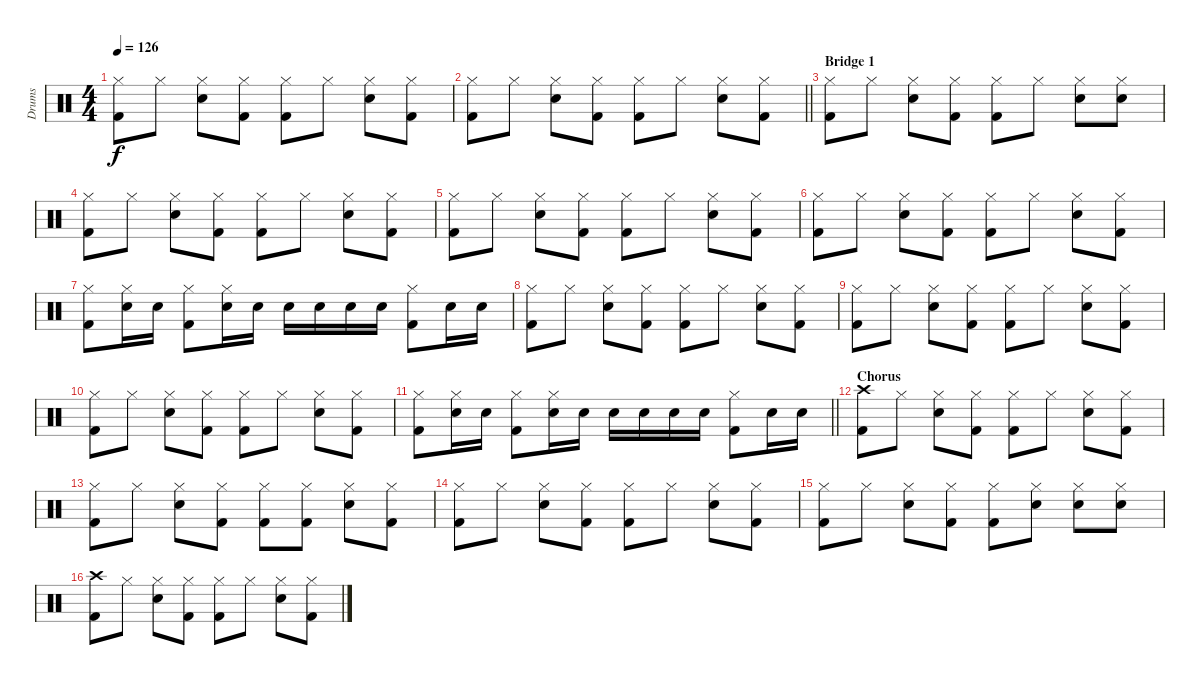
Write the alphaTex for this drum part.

\track ("Drums" "Drums") {instrument percussion}
\staff {score}
\articulation defaults
\ts (4 4)
\tempo 126
\clef neutral
\ks c
("Kick (hit) 2" "Hi-Hat (closed)").8{dy f} "Hi-Hat (closed)".8 ("Snare (hit) 2" "Hi-Hat (closed)").8 ("Kick (hit) 2" "Hi-Hat (closed)").8 ("Kick (hit) 2" "Hi-Hat (closed)").8 "Hi-Hat (closed)".8 ("Snare (hit) 2" "Hi-Hat (closed)").8 ("Kick (hit) 2" "Hi-Hat (closed)").8 |
\barLineRight lightlight
("Kick (hit) 2" "Hi-Hat (closed)").8 "Hi-Hat (closed)".8 ("Snare (hit) 2" "Hi-Hat (closed)").8 ("Kick (hit) 2" "Hi-Hat (closed)").8 ("Kick (hit) 2" "Hi-Hat (closed)").8 "Hi-Hat (closed)".8 ("Snare (hit) 2" "Hi-Hat (closed)").8 ("Kick (hit) 2" "Hi-Hat (closed)").8 |
\section ("" "Bridge 1")
("Kick (hit) 2" "Hi-Hat (closed)").8 "Hi-Hat (closed)".8 ("Snare (hit) 2" "Hi-Hat (closed)").8 ("Kick (hit) 2" "Hi-Hat (closed)").8 ("Kick (hit) 2" "Hi-Hat (closed)").8 "Hi-Hat (closed)".8 ("Snare (hit) 2" "Hi-Hat (closed)").8 ("Snare (hit) 2" "Hi-Hat (closed)").8 |
("Kick (hit) 2" "Hi-Hat (closed)").8 "Hi-Hat (closed)".8 ("Snare (hit) 2" "Hi-Hat (closed)").8 ("Kick (hit) 2" "Hi-Hat (closed)").8 ("Kick (hit) 2" "Hi-Hat (closed)").8 "Hi-Hat (closed)".8 ("Snare (hit) 2" "Hi-Hat (closed)").8 ("Kick (hit) 2" "Hi-Hat (closed)").8 |
("Kick (hit) 2" "Hi-Hat (closed)").8 "Hi-Hat (closed)".8 ("Snare (hit) 2" "Hi-Hat (closed)").8 ("Kick (hit) 2" "Hi-Hat (closed)").8 ("Kick (hit) 2" "Hi-Hat (closed)").8 "Hi-Hat (closed)".8 ("Snare (hit) 2" "Hi-Hat (closed)").8 ("Kick (hit) 2" "Hi-Hat (closed)").8 |
("Kick (hit) 2" "Hi-Hat (closed)").8 "Hi-Hat (closed)".8 ("Snare (hit) 2" "Hi-Hat (closed)").8 ("Kick (hit) 2" "Hi-Hat (closed)").8 ("Kick (hit) 2" "Hi-Hat (closed)").8 "Hi-Hat (closed)".8 ("Snare (hit) 2" "Hi-Hat (closed)").8 ("Kick (hit) 2" "Hi-Hat (closed)").8 |
("Kick (hit) 2" "Hi-Hat (closed)").8 ("Snare (hit) 2" "Hi-Hat (closed)").16 "Snare (hit) 2".16 ("Kick (hit) 2" "Hi-Hat (closed)").8 ("Snare (hit) 2" "Hi-Hat (closed)").16 "Snare (hit) 2".16 "Snare (hit) 2".16 "Snare (hit) 2".16 "Snare (hit) 2".16 "Snare (hit) 2".16 ("Kick (hit) 2" "Hi-Hat (closed)").8 "Snare (hit) 2".16 "Snare (hit) 2".16 |
("Kick (hit) 2" "Hi-Hat (closed)").8 "Hi-Hat (closed)".8 ("Snare (hit) 2" "Hi-Hat (closed)").8 ("Kick (hit) 2" "Hi-Hat (closed)").8 ("Kick (hit) 2" "Hi-Hat (closed)").8 "Hi-Hat (closed)".8 ("Snare (hit) 2" "Hi-Hat (closed)").8 ("Kick (hit) 2" "Hi-Hat (closed)").8 |
("Kick (hit) 2" "Hi-Hat (closed)").8 "Hi-Hat (closed)".8 ("Snare (hit) 2" "Hi-Hat (closed)").8 ("Kick (hit) 2" "Hi-Hat (closed)").8 ("Kick (hit) 2" "Hi-Hat (closed)").8 "Hi-Hat (closed)".8 ("Snare (hit) 2" "Hi-Hat (closed)").8 ("Kick (hit) 2" "Hi-Hat (closed)").8 |
("Kick (hit) 2" "Hi-Hat (closed)").8 "Hi-Hat (closed)".8 ("Snare (hit) 2" "Hi-Hat (closed)").8 ("Kick (hit) 2" "Hi-Hat (closed)").8 ("Kick (hit) 2" "Hi-Hat (closed)").8 "Hi-Hat (closed)".8 ("Snare (hit) 2" "Hi-Hat (closed)").8 ("Kick (hit) 2" "Hi-Hat (closed)").8 |
\barLineRight lightlight
("Kick (hit) 2" "Hi-Hat (closed)").8 ("Snare (hit) 2" "Hi-Hat (closed)").16 "Snare (hit) 2".16 ("Kick (hit) 2" "Hi-Hat (closed)").8 ("Snare (hit) 2" "Hi-Hat (closed)").16 "Snare (hit) 2".16 "Snare (hit) 2".16 "Snare (hit) 2".16 "Snare (hit) 2".16 "Snare (hit) 2".16 ("Kick (hit) 2" "Hi-Hat (closed)").8 "Snare (hit) 2".16 "Snare (hit) 2".16 |
\section ("" "Chorus")
("Kick (hit) 2" "Crash high (hit)").8 "Hi-Hat (closed)".8 ("Snare (hit) 2" "Hi-Hat (closed)").8 ("Kick (hit) 2" "Hi-Hat (closed)").8 ("Kick (hit) 2" "Hi-Hat (closed)").8 "Hi-Hat (closed)".8 ("Snare (hit) 2" "Hi-Hat (closed)").8 ("Kick (hit) 2" "Hi-Hat (closed)").8 |
("Kick (hit) 2" "Hi-Hat (closed)").8 "Hi-Hat (closed)".8 ("Snare (hit) 2" "Hi-Hat (closed)").8 ("Kick (hit) 2" "Hi-Hat (closed)").8 ("Kick (hit) 2" "Hi-Hat (closed)").8 ("Kick (hit) 2" "Hi-Hat (closed)").8 ("Snare (hit) 2" "Hi-Hat (closed)").8 ("Kick (hit) 2" "Hi-Hat (closed)").8 |
("Kick (hit) 2" "Hi-Hat (closed)").8 "Hi-Hat (closed)".8 ("Snare (hit) 2" "Hi-Hat (closed)").8 ("Kick (hit) 2" "Hi-Hat (closed)").8 ("Kick (hit) 2" "Hi-Hat (closed)").8 "Hi-Hat (closed)".8 ("Snare (hit) 2" "Hi-Hat (closed)").8 ("Kick (hit) 2" "Hi-Hat (closed)").8 |
("Kick (hit) 2" "Hi-Hat (closed)").8 "Hi-Hat (closed)".8 ("Snare (hit) 2" "Hi-Hat (closed)").8 ("Kick (hit) 2" "Hi-Hat (closed)").8 ("Kick (hit) 2" "Hi-Hat (closed)").8 ("Snare (hit) 2" "Hi-Hat (closed)").8 ("Snare (hit) 2" "Hi-Hat (closed)").8 ("Snare (hit) 2" "Hi-Hat (closed)").8 |
("Kick (hit) 2" "Crash high (hit)").8 "Hi-Hat (closed)".8 ("Snare (hit) 2" "Hi-Hat (closed)").8 ("Kick (hit) 2" "Hi-Hat (closed)").8 ("Kick (hit) 2" "Hi-Hat (closed)").8 "Hi-Hat (closed)".8 ("Snare (hit) 2" "Hi-Hat (closed)").8 ("Kick (hit) 2" "Hi-Hat (closed)").8
